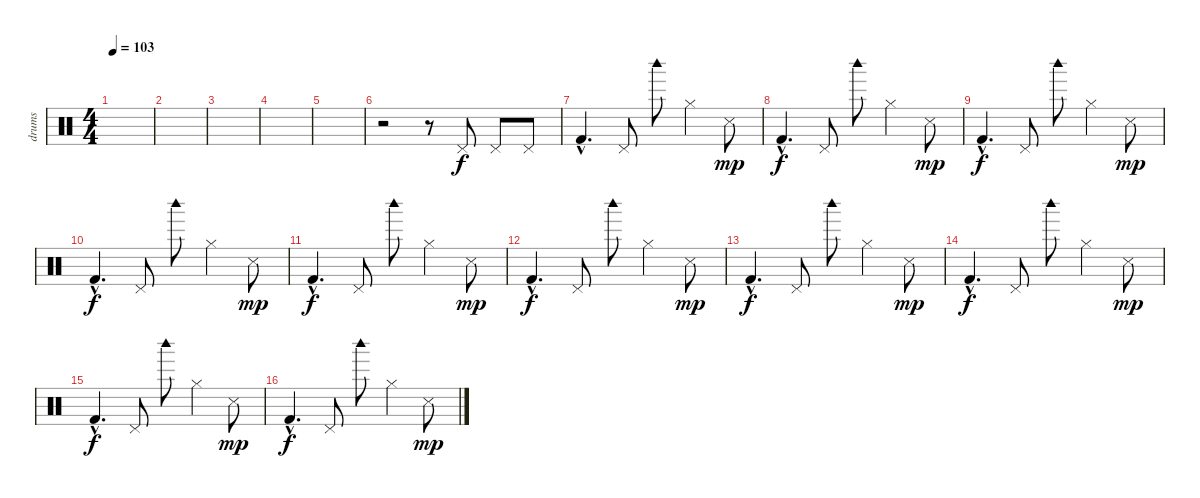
\track ("drums" "drums") {instrument percussion}
\staff {score}
\articulation defaults
\ts (4 4)
\tempo 103
\clef neutral
\ks c
|
|
|
|
|
r.2 r.8 "Pedal Hi-Hat (hit)".8 "Pedal Hi-Hat (hit)".8 "Pedal Hi-Hat (hit)".8 |
"Kick (hit) 2"{hac}.4{d} "Pedal Hi-Hat (hit)".8 "Woodblock high (hit)".8 "Hi-Hat (closed)".4 "Snare (side stick) 3".8{dy mp} |
"Kick (hit) 2"{hac}.4{d dy f} "Pedal Hi-Hat (hit)".8 "Woodblock high (hit)".8 "Hi-Hat (closed)".4 "Snare (side stick) 3".8{dy mp} |
"Kick (hit) 2"{hac}.4{d dy f} "Pedal Hi-Hat (hit)".8 "Woodblock high (hit)".8 "Hi-Hat (closed)".4 "Snare (side stick) 3".8{dy mp} |
"Kick (hit) 2"{hac}.4{d dy f} "Pedal Hi-Hat (hit)".8 "Woodblock high (hit)".8 "Hi-Hat (closed)".4 "Snare (side stick) 3".8{dy mp} |
"Kick (hit) 2"{hac}.4{d dy f} "Pedal Hi-Hat (hit)".8 "Woodblock high (hit)".8 "Hi-Hat (closed)".4 "Snare (side stick) 3".8{dy mp} |
"Kick (hit) 2"{hac}.4{d dy f} "Pedal Hi-Hat (hit)".8 "Woodblock high (hit)".8 "Hi-Hat (closed)".4 "Snare (side stick) 3".8{dy mp} |
"Kick (hit) 2"{hac}.4{d dy f} "Pedal Hi-Hat (hit)".8 "Woodblock high (hit)".8 "Hi-Hat (closed)".4 "Snare (side stick) 3".8{dy mp} |
"Kick (hit) 2"{hac}.4{d dy f} "Pedal Hi-Hat (hit)".8 "Woodblock high (hit)".8 "Hi-Hat (closed)".4 "Snare (side stick) 3".8{dy mp} |
"Kick (hit) 2"{hac}.4{d dy f} "Pedal Hi-Hat (hit)".8 "Woodblock high (hit)".8 "Hi-Hat (closed)".4 "Snare (side stick) 3".8{dy mp} |
"Kick (hit) 2"{hac}.4{d dy f} "Pedal Hi-Hat (hit)".8 "Woodblock high (hit)".8 "Hi-Hat (closed)".4 "Snare (side stick) 3".8{dy mp}
